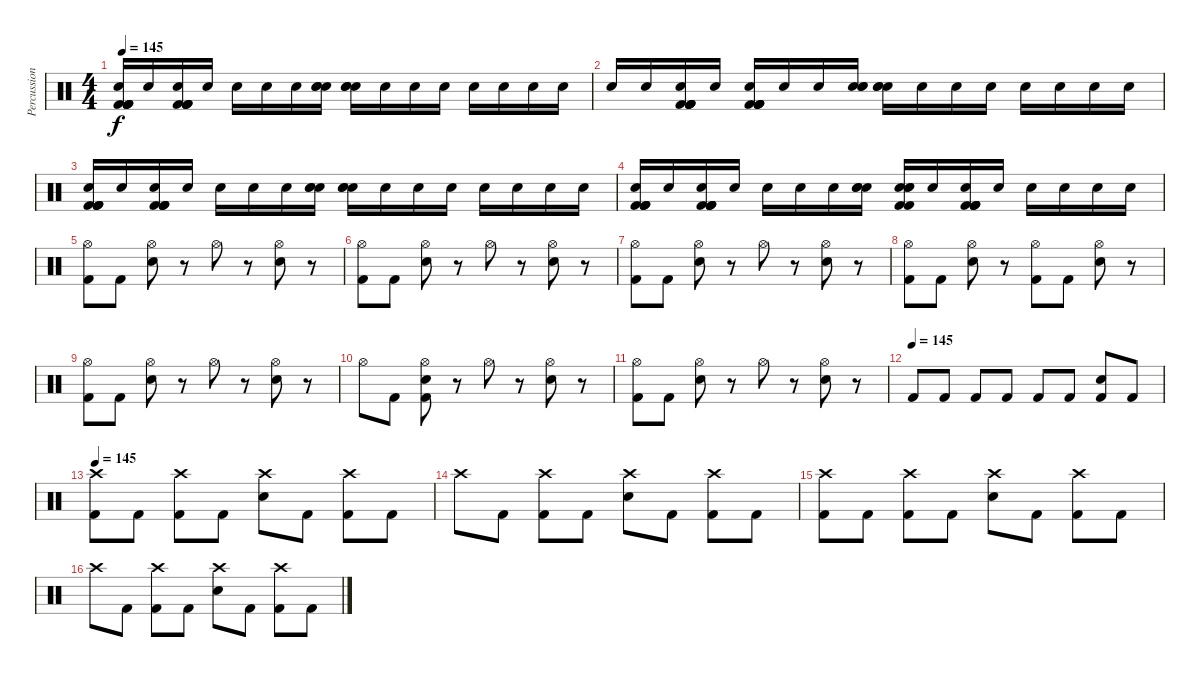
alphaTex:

\track ("Percussion" "Percussion") {instrument percussion}
\staff {score}
\articulation defaults
\ts (4 4)
\tempo 145
\clef neutral
\ks c
("Kick (hit) 2" "Kick (hit) 2" "Kick (hit) 2" "Snare (hit) 2" "Kick (hit) 2").16{dy f} "Snare (hit) 2".16 ("Kick (hit) 2" "Kick (hit) 2" "Kick (hit) 2" "Snare (hit) 2" "Kick (hit) 2").16 "Snare (hit) 2".16 "Snare (hit) 2".16 "Snare (hit) 2".16 "Snare (hit) 2".16 ("Electric Snare (hit)" "Snare (hit) 2" "Snare (hit) 2").16 ("Electric Snare (hit)" "Snare (hit) 2" "Snare (hit) 2").16 "Snare (hit) 2".16 "Snare (hit) 2".16 "Snare (hit) 2".16 "Snare (hit) 2".16 "Snare (hit) 2".16 "Snare (hit) 2".16 "Snare (hit) 2".16 |
"Snare (hit) 2".16 "Snare (hit) 2".16 ("Kick (hit) 2" "Kick (hit) 2" "Kick (hit) 2" "Snare (hit) 2" "Kick (hit) 2").16 "Snare (hit) 2".16 ("Kick (hit) 2" "Kick (hit) 2" "Kick (hit) 2" "Snare (hit) 2" "Kick (hit) 2").16 "Snare (hit) 2".16 "Snare (hit) 2".16 ("Electric Snare (hit)" "Snare (hit) 2" "Snare (hit) 2").16 ("Electric Snare (hit)" "Snare (hit) 2" "Snare (hit) 2").16 "Snare (hit) 2".16 "Snare (hit) 2".16 "Snare (hit) 2".16 "Snare (hit) 2".16 "Snare (hit) 2".16 "Snare (hit) 2".16 "Snare (hit) 2".16 |
("Kick (hit) 2" "Kick (hit) 2" "Kick (hit) 2" "Snare (hit) 2" "Kick (hit) 2").16 "Snare (hit) 2".16 ("Kick (hit) 2" "Kick (hit) 2" "Kick (hit) 2" "Snare (hit) 2" "Kick (hit) 2").16 "Snare (hit) 2".16 "Snare (hit) 2".16 "Snare (hit) 2".16 "Snare (hit) 2".16 ("Electric Snare (hit)" "Snare (hit) 2" "Snare (hit) 2").16 ("Electric Snare (hit)" "Snare (hit) 2" "Snare (hit) 2").16 "Snare (hit) 2".16 "Snare (hit) 2".16 "Snare (hit) 2".16 "Snare (hit) 2".16 "Snare (hit) 2".16 "Snare (hit) 2".16 "Snare (hit) 2".16 |
("Kick (hit) 2" "Kick (hit) 2" "Kick (hit) 2" "Snare (hit) 2" "Kick (hit) 2").16 "Snare (hit) 2".16 ("Kick (hit) 2" "Kick (hit) 2" "Kick (hit) 2" "Snare (hit) 2" "Kick (hit) 2").16 "Snare (hit) 2".16 "Snare (hit) 2".16 "Snare (hit) 2".16 "Snare (hit) 2".16 ("Electric Snare (hit)" "Snare (hit) 2" "Snare (hit) 2").16 ("Electric Snare (hit)" "Electric Snare (hit)" "Kick (hit) 2" "Snare (hit) 2" "Kick (hit) 2").16 "Snare (hit) 2".16 ("Kick (hit) 2" "Kick (hit) 2" "Kick (hit) 2" "Snare (hit) 2" "Kick (hit) 2").16 "Snare (hit) 2".16 "Snare (hit) 2".16 "Snare (hit) 2".16 "Snare (hit) 2".16 "Snare (hit) 2".16 |
("Hi-Hat (open)" "Kick (hit) 2").8{volume 12} "Kick (hit) 2".8 ("Hi-Hat (open)" "Snare (hit) 2").8 r.8 "Hi-Hat (open)".8 r.8 ("Hi-Hat (open)" "Snare (hit) 2").8 r.8 |
("Hi-Hat (open)" "Kick (hit) 2").8 "Kick (hit) 2".8 ("Hi-Hat (open)" "Snare (hit) 2").8 r.8 "Hi-Hat (open)".8 r.8 ("Hi-Hat (open)" "Snare (hit) 2").8 r.8 |
("Hi-Hat (open)" "Kick (hit) 2").8 "Kick (hit) 2".8 ("Hi-Hat (open)" "Snare (hit) 2").8 r.8 "Hi-Hat (open)".8 r.8 ("Hi-Hat (open)" "Snare (hit) 2").8 r.8 |
("Hi-Hat (open)" "Kick (hit) 2").8 "Kick (hit) 2".8 ("Hi-Hat (open)" "Snare (hit) 2").8 r.8 ("Hi-Hat (open)" "Kick (hit) 2").8 "Kick (hit) 2".8 ("Hi-Hat (open)" "Snare (hit) 2").8 r.8 |
("Hi-Hat (open)" "Kick (hit) 2").8 "Kick (hit) 2".8 ("Hi-Hat (open)" "Snare (hit) 2").8 r.8 "Hi-Hat (open)".8 r.8 ("Hi-Hat (open)" "Snare (hit) 2").8 r.8 |
"Hi-Hat (open)".8 "Kick (hit) 2".8 ("Hi-Hat (open)" "Snare (hit) 2" "Kick (hit) 2").8 r.8 "Hi-Hat (open)".8 r.8 ("Hi-Hat (open)" "Snare (hit) 2").8 r.8 |
("Hi-Hat (open)" "Kick (hit) 2").8 "Kick (hit) 2".8 ("Hi-Hat (open)" "Snare (hit) 2").8 r.8 "Hi-Hat (open)".8 r.8 ("Hi-Hat (open)" "Snare (hit) 2").8 r.8 |
\tempo (145)
"Kick (hit) 2".8 "Kick (hit) 2".8 "Kick (hit) 2".8 "Kick (hit) 2".8 "Kick (hit) 2".8 "Kick (hit) 2".8 ("Snare (hit) 2" "Kick (hit) 2").8 "Kick (hit) 2".8 |
\tempo 145
("Crash high (hit)" "Kick (hit) 2").8 "Kick (hit) 2".8 ("Crash high (hit)" "Kick (hit) 2").8 "Kick (hit) 2".8 ("Crash high (hit)" "Snare (hit) 2").8 "Kick (hit) 2".8 ("Crash high (hit)" "Kick (hit) 2").8 "Kick (hit) 2".8 |
"Crash high (hit)".8 "Kick (hit) 2".8 ("Crash high (hit)" "Kick (hit) 2").8 "Kick (hit) 2".8 ("Crash high (hit)" "Snare (hit) 2").8 "Kick (hit) 2".8 ("Crash high (hit)" "Kick (hit) 2").8 "Kick (hit) 2".8 |
("Crash high (hit)" "Kick (hit) 2").8 "Kick (hit) 2".8 ("Crash high (hit)" "Kick (hit) 2").8 "Kick (hit) 2".8 ("Crash high (hit)" "Snare (hit) 2").8 "Kick (hit) 2".8 ("Crash high (hit)" "Kick (hit) 2").8 "Kick (hit) 2".8 |
"Crash high (hit)".8 "Kick (hit) 2".8 ("Crash high (hit)" "Kick (hit) 2").8 "Kick (hit) 2".8 ("Crash high (hit)" "Snare (hit) 2").8 "Kick (hit) 2".8 ("Crash high (hit)" "Kick (hit) 2").8 "Kick (hit) 2".8
